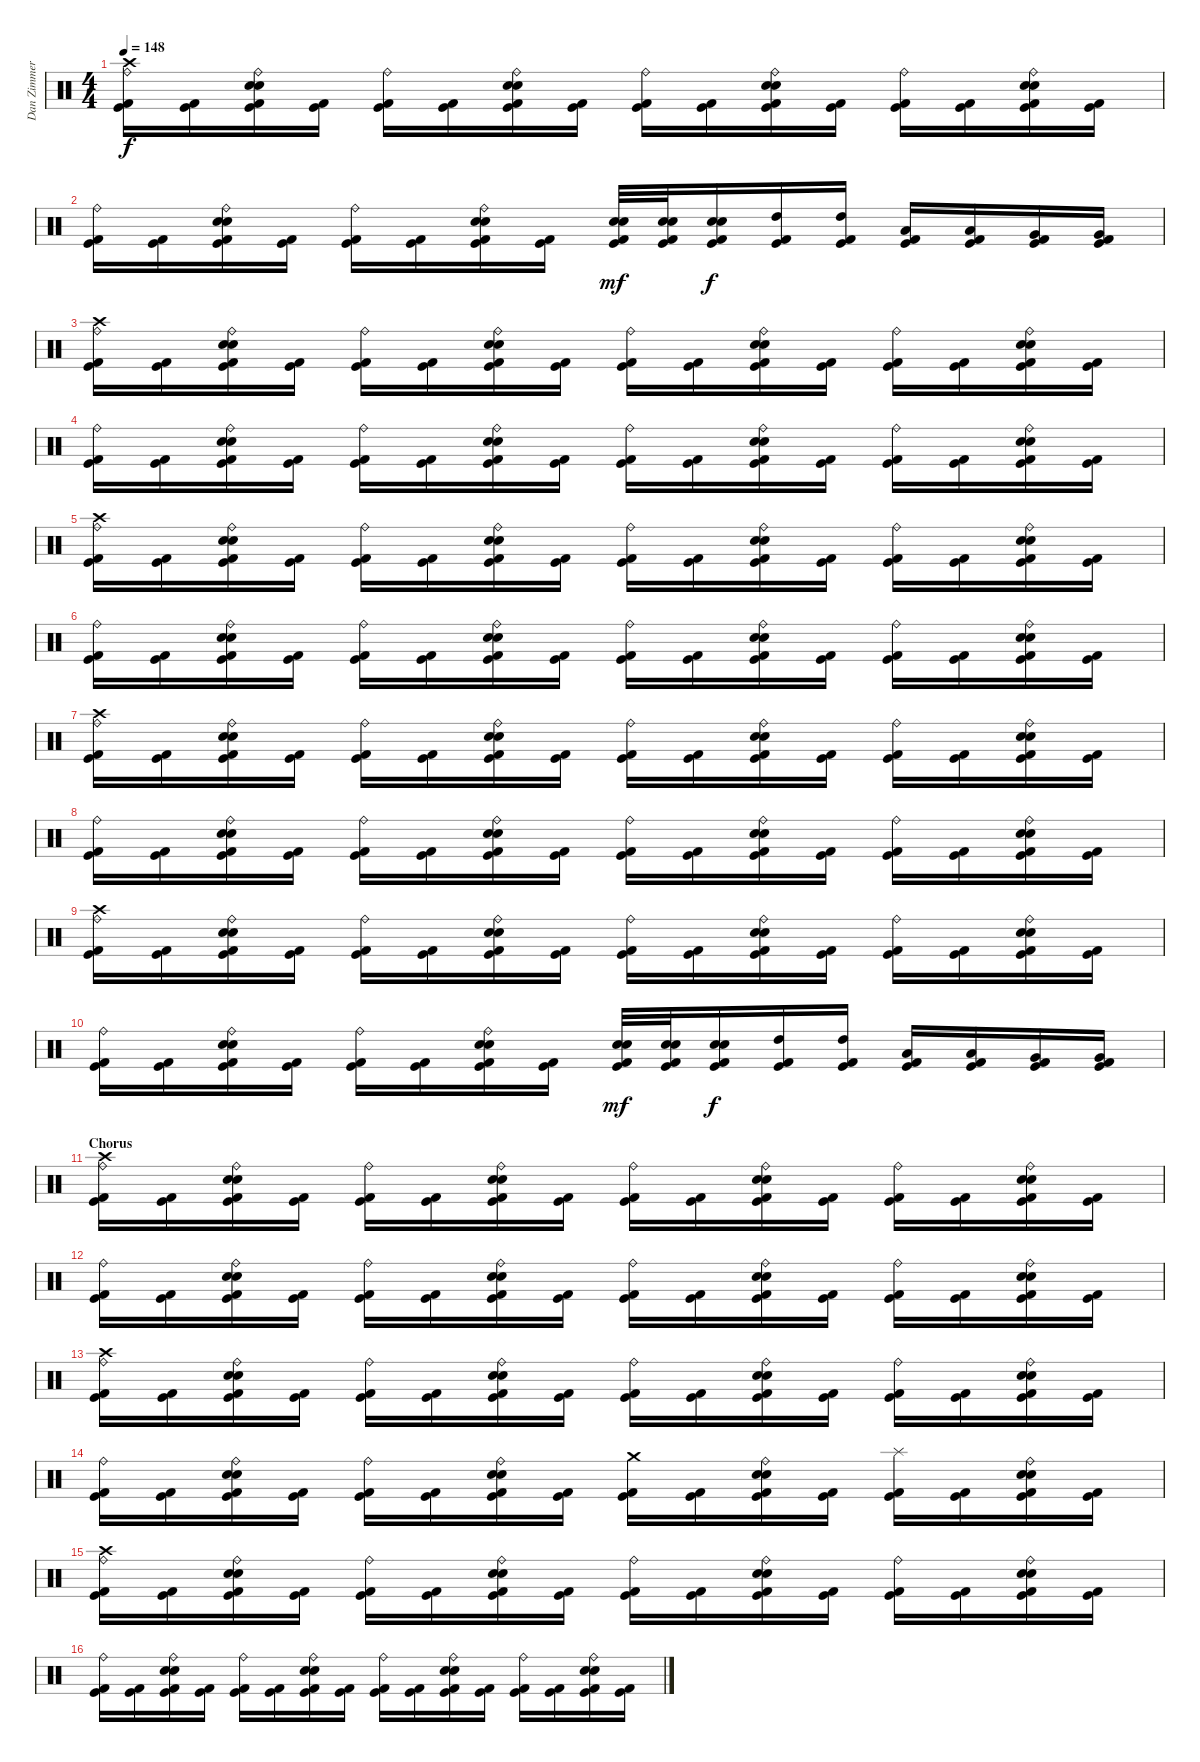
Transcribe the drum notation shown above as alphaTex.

\track ("Dan Zimmerman<Drum>" "Dan Zimmer") {instrument percussion}
\staff {score}
\articulation defaults
\ts (4 4)
\tempo 148
\clef neutral
\ks c
("Ride (bell)" "Crash high (hit)" "Kick (hit) 2" "Kick (hit)").16{dy f} ("Kick (hit) 2" "Kick (hit)").16 ("Ride (bell)" "Snare (hit) 2" "Electric Snare (hit)" "Kick (hit) 2" "Kick (hit)").16 ("Kick (hit) 2" "Kick (hit)").16 ("Ride (bell)" "Kick (hit) 2" "Kick (hit)").16 ("Kick (hit) 2" "Kick (hit)").16 ("Ride (bell)" "Snare (hit) 2" "Electric Snare (hit)" "Kick (hit) 2" "Kick (hit)").16 ("Kick (hit) 2" "Kick (hit)").16 ("Ride (bell)" "Kick (hit) 2" "Kick (hit)").16 ("Kick (hit) 2" "Kick (hit)").16 ("Ride (bell)" "Snare (hit) 2" "Electric Snare (hit)" "Kick (hit) 2" "Kick (hit)").16 ("Kick (hit) 2" "Kick (hit)").16 ("Ride (bell)" "Kick (hit) 2" "Kick (hit)").16 ("Kick (hit) 2" "Kick (hit)").16 ("Ride (bell)" "Snare (hit) 2" "Electric Snare (hit)" "Kick (hit) 2" "Kick (hit)").16 ("Kick (hit) 2" "Kick (hit)").16 |
("Ride (bell)" "Kick (hit) 2" "Kick (hit)").16 ("Kick (hit) 2" "Kick (hit)").16 ("Ride (bell)" "Snare (hit) 2" "Electric Snare (hit)" "Kick (hit) 2" "Kick (hit)").16 ("Kick (hit) 2" "Kick (hit)").16 ("Ride (bell)" "Kick (hit) 2" "Kick (hit)").16 ("Kick (hit) 2" "Kick (hit)").16 ("Ride (bell)" "Snare (hit) 2" "Electric Snare (hit)" "Kick (hit) 2" "Kick (hit)").16 ("Kick (hit) 2" "Kick (hit)").16 ("Snare (hit) 2" "Electric Snare (hit)" "Kick (hit) 2" "Kick (hit)").32{dy mf} ("Snare (hit) 2" "Electric Snare (hit)" "Kick (hit) 2" "Kick (hit)").32 ("Electric Snare (hit)" "Snare (hit) 2" "Kick (hit) 2" "Kick (hit)").16{dy f} ("High Tom (hit)" "Kick (hit) 2" "Kick (hit)").16 ("High Tom (hit)" "Kick (hit) 2" "Kick (hit)").16 ("Low Tom (hit)" "Kick (hit) 2" "Kick (hit)").16 ("Low Tom (hit)" "Kick (hit) 2" "Kick (hit)").16 ("Very Low Tom (hit)" "Kick (hit) 2" "Kick (hit)").16 ("Very Low Tom (hit)" "Kick (hit) 2" "Kick (hit)").16 |
("Ride (bell)" "Crash high (hit)" "Kick (hit) 2" "Kick (hit)").16 ("Kick (hit) 2" "Kick (hit)").16 ("Ride (bell)" "Snare (hit) 2" "Electric Snare (hit)" "Kick (hit) 2" "Kick (hit)").16 ("Kick (hit) 2" "Kick (hit)").16 ("Ride (bell)" "Kick (hit) 2" "Kick (hit)").16 ("Kick (hit) 2" "Kick (hit)").16 ("Ride (bell)" "Snare (hit) 2" "Electric Snare (hit)" "Kick (hit) 2" "Kick (hit)").16 ("Kick (hit) 2" "Kick (hit)").16 ("Ride (bell)" "Kick (hit) 2" "Kick (hit)").16 ("Kick (hit) 2" "Kick (hit)").16 ("Ride (bell)" "Snare (hit) 2" "Electric Snare (hit)" "Kick (hit) 2" "Kick (hit)").16 ("Kick (hit) 2" "Kick (hit)").16 ("Ride (bell)" "Kick (hit) 2" "Kick (hit)").16 ("Kick (hit) 2" "Kick (hit)").16 ("Ride (bell)" "Snare (hit) 2" "Electric Snare (hit)" "Kick (hit) 2" "Kick (hit)").16 ("Kick (hit) 2" "Kick (hit)").16 |
("Ride (bell)" "Kick (hit) 2" "Kick (hit)").16 ("Kick (hit) 2" "Kick (hit)").16 ("Ride (bell)" "Snare (hit) 2" "Electric Snare (hit)" "Kick (hit) 2" "Kick (hit)").16 ("Kick (hit) 2" "Kick (hit)").16 ("Ride (bell)" "Kick (hit) 2" "Kick (hit)").16 ("Kick (hit) 2" "Kick (hit)").16 ("Ride (bell)" "Snare (hit) 2" "Electric Snare (hit)" "Kick (hit) 2" "Kick (hit)").16 ("Kick (hit) 2" "Kick (hit)").16 ("Ride (bell)" "Kick (hit) 2" "Kick (hit)").16 ("Kick (hit) 2" "Kick (hit)").16 ("Ride (bell)" "Snare (hit) 2" "Electric Snare (hit)" "Kick (hit) 2" "Kick (hit)").16 ("Kick (hit) 2" "Kick (hit)").16 ("Ride (bell)" "Kick (hit) 2" "Kick (hit)").16 ("Kick (hit) 2" "Kick (hit)").16 ("Ride (bell)" "Snare (hit) 2" "Electric Snare (hit)" "Kick (hit) 2" "Kick (hit)").16 ("Kick (hit) 2" "Kick (hit)").16 |
("Ride (bell)" "Crash high (hit)" "Kick (hit) 2" "Kick (hit)").16 ("Kick (hit) 2" "Kick (hit)").16 ("Ride (bell)" "Snare (hit) 2" "Electric Snare (hit)" "Kick (hit) 2" "Kick (hit)").16 ("Kick (hit) 2" "Kick (hit)").16 ("Ride (bell)" "Kick (hit) 2" "Kick (hit)").16 ("Kick (hit) 2" "Kick (hit)").16 ("Ride (bell)" "Snare (hit) 2" "Electric Snare (hit)" "Kick (hit) 2" "Kick (hit)").16 ("Kick (hit) 2" "Kick (hit)").16 ("Ride (bell)" "Kick (hit) 2" "Kick (hit)").16 ("Kick (hit) 2" "Kick (hit)").16 ("Ride (bell)" "Snare (hit) 2" "Electric Snare (hit)" "Kick (hit) 2" "Kick (hit)").16 ("Kick (hit) 2" "Kick (hit)").16 ("Ride (bell)" "Kick (hit) 2" "Kick (hit)").16 ("Kick (hit) 2" "Kick (hit)").16 ("Ride (bell)" "Snare (hit) 2" "Electric Snare (hit)" "Kick (hit) 2" "Kick (hit)").16 ("Kick (hit) 2" "Kick (hit)").16 |
("Ride (bell)" "Kick (hit) 2" "Kick (hit)").16 ("Kick (hit) 2" "Kick (hit)").16 ("Ride (bell)" "Snare (hit) 2" "Electric Snare (hit)" "Kick (hit) 2" "Kick (hit)").16 ("Kick (hit) 2" "Kick (hit)").16 ("Ride (bell)" "Kick (hit) 2" "Kick (hit)").16 ("Kick (hit) 2" "Kick (hit)").16 ("Ride (bell)" "Snare (hit) 2" "Electric Snare (hit)" "Kick (hit) 2" "Kick (hit)").16 ("Kick (hit) 2" "Kick (hit)").16 ("Ride (bell)" "Kick (hit) 2" "Kick (hit)").16 ("Kick (hit) 2" "Kick (hit)").16 ("Ride (bell)" "Snare (hit) 2" "Electric Snare (hit)" "Kick (hit) 2" "Kick (hit)").16 ("Kick (hit) 2" "Kick (hit)").16 ("Ride (bell)" "Kick (hit) 2" "Kick (hit)").16 ("Kick (hit) 2" "Kick (hit)").16 ("Ride (bell)" "Snare (hit) 2" "Electric Snare (hit)" "Kick (hit) 2" "Kick (hit)").16 ("Kick (hit) 2" "Kick (hit)").16 |
("Ride (bell)" "Crash high (hit)" "Kick (hit) 2" "Kick (hit)").16 ("Kick (hit) 2" "Kick (hit)").16 ("Ride (bell)" "Snare (hit) 2" "Electric Snare (hit)" "Kick (hit) 2" "Kick (hit)").16 ("Kick (hit) 2" "Kick (hit)").16 ("Ride (bell)" "Kick (hit) 2" "Kick (hit)").16 ("Kick (hit) 2" "Kick (hit)").16 ("Ride (bell)" "Snare (hit) 2" "Electric Snare (hit)" "Kick (hit) 2" "Kick (hit)").16 ("Kick (hit) 2" "Kick (hit)").16 ("Ride (bell)" "Kick (hit) 2" "Kick (hit)").16 ("Kick (hit) 2" "Kick (hit)").16 ("Ride (bell)" "Snare (hit) 2" "Electric Snare (hit)" "Kick (hit) 2" "Kick (hit)").16 ("Kick (hit) 2" "Kick (hit)").16 ("Ride (bell)" "Kick (hit) 2" "Kick (hit)").16 ("Kick (hit) 2" "Kick (hit)").16 ("Ride (bell)" "Snare (hit) 2" "Electric Snare (hit)" "Kick (hit) 2" "Kick (hit)").16 ("Kick (hit) 2" "Kick (hit)").16 |
("Ride (bell)" "Kick (hit) 2" "Kick (hit)").16 ("Kick (hit) 2" "Kick (hit)").16 ("Ride (bell)" "Snare (hit) 2" "Electric Snare (hit)" "Kick (hit) 2" "Kick (hit)").16 ("Kick (hit) 2" "Kick (hit)").16 ("Ride (bell)" "Kick (hit) 2" "Kick (hit)").16 ("Kick (hit) 2" "Kick (hit)").16 ("Ride (bell)" "Snare (hit) 2" "Electric Snare (hit)" "Kick (hit) 2" "Kick (hit)").16 ("Kick (hit) 2" "Kick (hit)").16 ("Ride (bell)" "Kick (hit) 2" "Kick (hit)").16 ("Kick (hit) 2" "Kick (hit)").16 ("Ride (bell)" "Snare (hit) 2" "Electric Snare (hit)" "Kick (hit) 2" "Kick (hit)").16 ("Kick (hit) 2" "Kick (hit)").16 ("Ride (bell)" "Kick (hit) 2" "Kick (hit)").16 ("Kick (hit) 2" "Kick (hit)").16 ("Ride (bell)" "Snare (hit) 2" "Electric Snare (hit)" "Kick (hit) 2" "Kick (hit)").16 ("Kick (hit) 2" "Kick (hit)").16 |
("Ride (bell)" "Crash high (hit)" "Kick (hit) 2" "Kick (hit)").16 ("Kick (hit) 2" "Kick (hit)").16 ("Ride (bell)" "Snare (hit) 2" "Electric Snare (hit)" "Kick (hit) 2" "Kick (hit)").16 ("Kick (hit) 2" "Kick (hit)").16 ("Ride (bell)" "Kick (hit) 2" "Kick (hit)").16 ("Kick (hit) 2" "Kick (hit)").16 ("Ride (bell)" "Snare (hit) 2" "Electric Snare (hit)" "Kick (hit) 2" "Kick (hit)").16 ("Kick (hit) 2" "Kick (hit)").16 ("Ride (bell)" "Kick (hit) 2" "Kick (hit)").16 ("Kick (hit) 2" "Kick (hit)").16 ("Ride (bell)" "Snare (hit) 2" "Electric Snare (hit)" "Kick (hit) 2" "Kick (hit)").16 ("Kick (hit) 2" "Kick (hit)").16 ("Ride (bell)" "Kick (hit) 2" "Kick (hit)").16 ("Kick (hit) 2" "Kick (hit)").16 ("Ride (bell)" "Snare (hit) 2" "Electric Snare (hit)" "Kick (hit) 2" "Kick (hit)").16 ("Kick (hit) 2" "Kick (hit)").16 |
("Ride (bell)" "Kick (hit) 2" "Kick (hit)").16 ("Kick (hit) 2" "Kick (hit)").16 ("Ride (bell)" "Snare (hit) 2" "Electric Snare (hit)" "Kick (hit) 2" "Kick (hit)").16 ("Kick (hit) 2" "Kick (hit)").16 ("Ride (bell)" "Kick (hit) 2" "Kick (hit)").16 ("Kick (hit) 2" "Kick (hit)").16 ("Ride (bell)" "Snare (hit) 2" "Electric Snare (hit)" "Kick (hit) 2" "Kick (hit)").16 ("Kick (hit) 2" "Kick (hit)").16 ("Snare (hit) 2" "Electric Snare (hit)" "Kick (hit) 2" "Kick (hit)").32{dy mf} ("Snare (hit) 2" "Electric Snare (hit)" "Kick (hit) 2" "Kick (hit)").32 ("Electric Snare (hit)" "Snare (hit) 2" "Kick (hit) 2" "Kick (hit)").16{dy f} ("High Tom (hit)" "Kick (hit) 2" "Kick (hit)").16 ("High Tom (hit)" "Kick (hit) 2" "Kick (hit)").16 ("Low Tom (hit)" "Kick (hit) 2" "Kick (hit)").16 ("Low Tom (hit)" "Kick (hit) 2" "Kick (hit)").16 ("Very Low Tom (hit)" "Kick (hit) 2" "Kick (hit)").16 ("Very Low Tom (hit)" "Kick (hit) 2" "Kick (hit)").16 |
\section ("" "Chorus")
("Ride (bell)" "Crash high (hit)" "Kick (hit) 2" "Kick (hit)").16 ("Kick (hit) 2" "Kick (hit)").16 ("Ride (bell)" "Snare (hit) 2" "Electric Snare (hit)" "Kick (hit) 2" "Kick (hit)").16 ("Kick (hit) 2" "Kick (hit)").16 ("Ride (bell)" "Kick (hit) 2" "Kick (hit)").16 ("Kick (hit) 2" "Kick (hit)").16 ("Ride (bell)" "Snare (hit) 2" "Electric Snare (hit)" "Kick (hit) 2" "Kick (hit)").16 ("Kick (hit) 2" "Kick (hit)").16 ("Ride (bell)" "Kick (hit) 2" "Kick (hit)").16 ("Kick (hit) 2" "Kick (hit)").16 ("Ride (bell)" "Snare (hit) 2" "Electric Snare (hit)" "Kick (hit) 2" "Kick (hit)").16 ("Kick (hit) 2" "Kick (hit)").16 ("Ride (bell)" "Kick (hit) 2" "Kick (hit)").16 ("Kick (hit) 2" "Kick (hit)").16 ("Ride (bell)" "Snare (hit) 2" "Electric Snare (hit)" "Kick (hit) 2" "Kick (hit)").16 ("Kick (hit) 2" "Kick (hit)").16 |
("Ride (bell)" "Kick (hit) 2" "Kick (hit)").16 ("Kick (hit) 2" "Kick (hit)").16 ("Ride (bell)" "Snare (hit) 2" "Electric Snare (hit)" "Kick (hit) 2" "Kick (hit)").16 ("Kick (hit) 2" "Kick (hit)").16 ("Ride (bell)" "Kick (hit) 2" "Kick (hit)").16 ("Kick (hit) 2" "Kick (hit)").16 ("Ride (bell)" "Snare (hit) 2" "Electric Snare (hit)" "Kick (hit) 2" "Kick (hit)").16 ("Kick (hit) 2" "Kick (hit)").16 ("Ride (bell)" "Kick (hit) 2" "Kick (hit)").16 ("Kick (hit) 2" "Kick (hit)").16 ("Ride (bell)" "Snare (hit) 2" "Electric Snare (hit)" "Kick (hit) 2" "Kick (hit)").16 ("Kick (hit) 2" "Kick (hit)").16 ("Ride (bell)" "Kick (hit) 2" "Kick (hit)").16 ("Kick (hit) 2" "Kick (hit)").16 ("Ride (bell)" "Snare (hit) 2" "Electric Snare (hit)" "Kick (hit) 2" "Kick (hit)").16 ("Kick (hit) 2" "Kick (hit)").16 |
("Ride (bell)" "Crash high (hit)" "Kick (hit) 2" "Kick (hit)").16 ("Kick (hit) 2" "Kick (hit)").16 ("Ride (bell)" "Snare (hit) 2" "Electric Snare (hit)" "Kick (hit) 2" "Kick (hit)").16 ("Kick (hit) 2" "Kick (hit)").16 ("Ride (bell)" "Kick (hit) 2" "Kick (hit)").16 ("Kick (hit) 2" "Kick (hit)").16 ("Ride (bell)" "Snare (hit) 2" "Electric Snare (hit)" "Kick (hit) 2" "Kick (hit)").16 ("Kick (hit) 2" "Kick (hit)").16 ("Ride (bell)" "Kick (hit) 2" "Kick (hit)").16 ("Kick (hit) 2" "Kick (hit)").16 ("Ride (bell)" "Snare (hit) 2" "Electric Snare (hit)" "Kick (hit) 2" "Kick (hit)").16 ("Kick (hit) 2" "Kick (hit)").16 ("Ride (bell)" "Kick (hit) 2" "Kick (hit)").16 ("Kick (hit) 2" "Kick (hit)").16 ("Ride (bell)" "Snare (hit) 2" "Electric Snare (hit)" "Kick (hit) 2" "Kick (hit)").16 ("Kick (hit) 2" "Kick (hit)").16 |
("Ride (bell)" "Kick (hit) 2" "Kick (hit)").16 ("Kick (hit) 2" "Kick (hit)").16 ("Ride (bell)" "Snare (hit) 2" "Electric Snare (hit)" "Kick (hit) 2" "Kick (hit)").16 ("Kick (hit) 2" "Kick (hit)").16 ("Ride (bell)" "Kick (hit) 2" "Kick (hit)").16 ("Kick (hit) 2" "Kick (hit)").16 ("Ride (bell)" "Snare (hit) 2" "Electric Snare (hit)" "Kick (hit) 2" "Kick (hit)").16 ("Kick (hit) 2" "Kick (hit)").16 ("Crash medium (hit)" "Kick (hit) 2" "Kick (hit)").16 ("Kick (hit) 2" "Kick (hit)").16 ("Ride (bell)" "Snare (hit) 2" "Electric Snare (hit)" "Kick (hit) 2" "Kick (hit)").16 ("Kick (hit) 2" "Kick (hit)").16 ("Splash (hit)" "Kick (hit) 2" "Kick (hit)").16 ("Kick (hit) 2" "Kick (hit)").16 ("Ride (bell)" "Snare (hit) 2" "Electric Snare (hit)" "Kick (hit) 2" "Kick (hit)").16 ("Kick (hit) 2" "Kick (hit)").16 |
("Ride (bell)" "Crash high (hit)" "Kick (hit) 2" "Kick (hit)").16 ("Kick (hit) 2" "Kick (hit)").16 ("Ride (bell)" "Snare (hit) 2" "Electric Snare (hit)" "Kick (hit) 2" "Kick (hit)").16 ("Kick (hit) 2" "Kick (hit)").16 ("Ride (bell)" "Kick (hit) 2" "Kick (hit)").16 ("Kick (hit) 2" "Kick (hit)").16 ("Ride (bell)" "Snare (hit) 2" "Electric Snare (hit)" "Kick (hit) 2" "Kick (hit)").16 ("Kick (hit) 2" "Kick (hit)").16 ("Ride (bell)" "Kick (hit) 2" "Kick (hit)").16 ("Kick (hit) 2" "Kick (hit)").16 ("Ride (bell)" "Snare (hit) 2" "Electric Snare (hit)" "Kick (hit) 2" "Kick (hit)").16 ("Kick (hit) 2" "Kick (hit)").16 ("Ride (bell)" "Kick (hit) 2" "Kick (hit)").16 ("Kick (hit) 2" "Kick (hit)").16 ("Ride (bell)" "Snare (hit) 2" "Electric Snare (hit)" "Kick (hit) 2" "Kick (hit)").16 ("Kick (hit) 2" "Kick (hit)").16 |
("Ride (bell)" "Kick (hit) 2" "Kick (hit)").16 ("Kick (hit) 2" "Kick (hit)").16 ("Ride (bell)" "Snare (hit) 2" "Electric Snare (hit)" "Kick (hit) 2" "Kick (hit)").16 ("Kick (hit) 2" "Kick (hit)").16 ("Ride (bell)" "Kick (hit) 2" "Kick (hit)").16 ("Kick (hit) 2" "Kick (hit)").16 ("Ride (bell)" "Snare (hit) 2" "Electric Snare (hit)" "Kick (hit) 2" "Kick (hit)").16 ("Kick (hit) 2" "Kick (hit)").16 ("Ride (bell)" "Kick (hit) 2" "Kick (hit)").16 ("Kick (hit) 2" "Kick (hit)").16 ("Ride (bell)" "Snare (hit) 2" "Electric Snare (hit)" "Kick (hit) 2" "Kick (hit)").16 ("Kick (hit) 2" "Kick (hit)").16 ("Ride (bell)" "Kick (hit) 2" "Kick (hit)").16 ("Kick (hit) 2" "Kick (hit)").16 ("Ride (bell)" "Snare (hit) 2" "Electric Snare (hit)" "Kick (hit) 2" "Kick (hit)").16 ("Kick (hit) 2" "Kick (hit)").16
